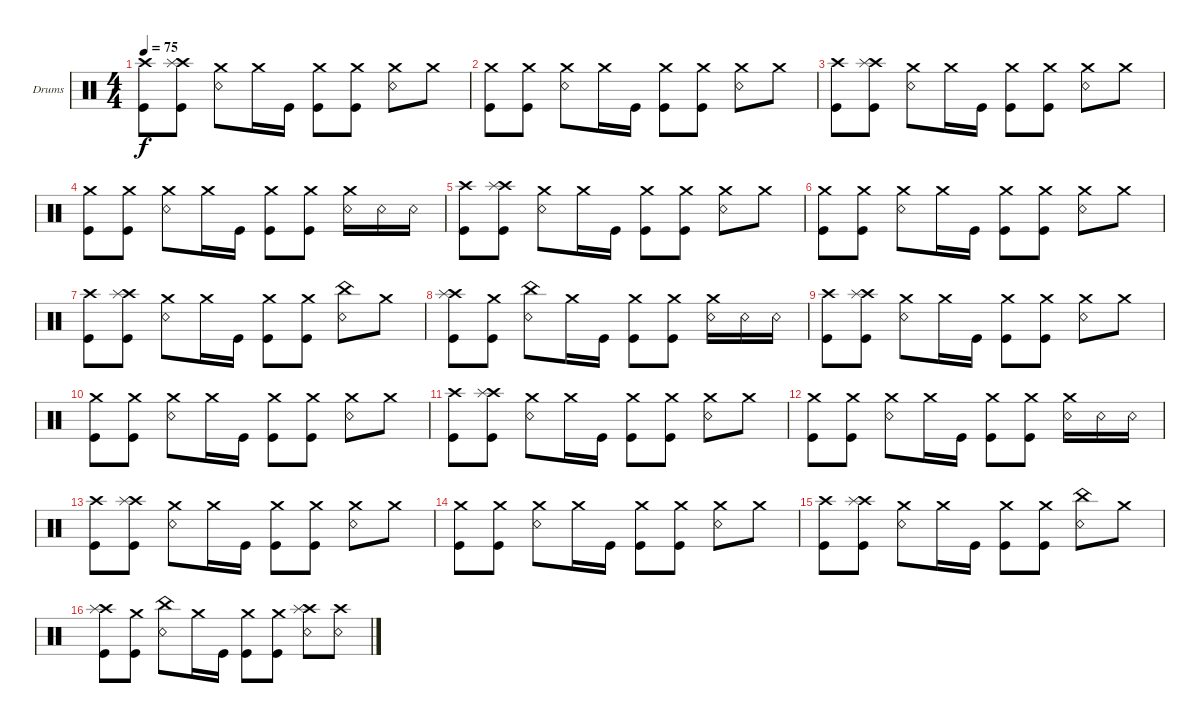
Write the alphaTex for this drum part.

\defaultSystemsLayout 4
\bracketExtendMode groupsimilarinstruments
\firstSystemTrackNameOrientation horizontal
\otherSystemsTrackNameOrientation horizontal
\track ("Drumkit" "Drums") {instrument percussion}
\staff {score}
\articulation defaults
\ts (4 4)
\tempo 75
\clef neutral
\ks c
("Kick (hit)" "Crash high (hit)").8{dy f} ("Kick (hit)" "Crash high (hit)" "Splash (hit)").8 ("Crash medium (hit)" "Snare (rim shot)").8 "Crash medium (hit)".16 "Kick (hit)".16 ("Crash medium (hit)" "Kick (hit)").8 ("Crash medium (hit)" "Kick (hit)").8 ("Snare (rim shot)" "Crash medium (hit)").8 "Crash medium (hit)".8 |
("Kick (hit)" "Crash medium (hit)").8 ("Kick (hit)" "Crash medium (hit)").8 ("Crash medium (hit)" "Snare (rim shot)").8 "Crash medium (hit)".16 "Kick (hit)".16 ("Crash medium (hit)" "Kick (hit)").8 ("Crash medium (hit)" "Kick (hit)").8 ("Snare (rim shot)" "Crash medium (hit)").8 "Crash medium (hit)".8 |
("Kick (hit)" "Crash high (hit)").8 ("Kick (hit)" "Crash high (hit)" "Splash (hit)").8 ("Crash medium (hit)" "Snare (rim shot)").8 "Crash medium (hit)".16 "Kick (hit)".16 ("Crash medium (hit)" "Kick (hit)").8 ("Crash medium (hit)" "Kick (hit)").8 ("Snare (rim shot)" "Crash medium (hit)").8 "Crash medium (hit)".8 |
("Kick (hit)" "Crash medium (hit)").8 ("Kick (hit)" "Crash medium (hit)").8 ("Crash medium (hit)" "Snare (rim shot)").8 "Crash medium (hit)".16 "Kick (hit)".16 ("Crash medium (hit)" "Kick (hit)").8 ("Crash medium (hit)" "Kick (hit)").8 ("Snare (rim shot)" "Crash medium (hit)").16 "Snare (rim shot)".16 "Snare (rim shot)".16 |
("Kick (hit)" "Crash high (hit)").8 ("Kick (hit)" "Crash high (hit)" "Splash (hit)").8 ("Crash medium (hit)" "Snare (rim shot)").8 "Crash medium (hit)".16 "Kick (hit)".16 ("Crash medium (hit)" "Kick (hit)").8 ("Crash medium (hit)" "Kick (hit)").8 ("Snare (rim shot)" "Crash medium (hit)").8 "Crash medium (hit)".8 |
("Kick (hit)" "Crash medium (hit)").8 ("Kick (hit)" "Crash medium (hit)").8 ("Crash medium (hit)" "Snare (rim shot)").8 "Crash medium (hit)".16 "Kick (hit)".16 ("Crash medium (hit)" "Kick (hit)").8 ("Crash medium (hit)" "Kick (hit)").8 ("Snare (rim shot)" "Crash medium (hit)").8 "Crash medium (hit)".8 |
("Kick (hit)" "Crash high (hit)").8 ("Kick (hit)" "Crash high (hit)" "Splash (hit)").8 ("Crash medium (hit)" "Snare (rim shot)").8 "Crash medium (hit)".16 "Kick (hit)".16 ("Crash medium (hit)" "Kick (hit)").8 ("Crash medium (hit)" "Kick (hit)").8 ("Snare (rim shot)" "China (hit)").8 "Crash medium (hit)".8 |
("Kick (hit)" "Crash high (hit)" "Splash (hit)").8 ("Kick (hit)" "Crash medium (hit)").8 ("Snare (rim shot)" "China (hit)").8 "Crash medium (hit)".16 "Kick (hit)".16 ("Crash medium (hit)" "Kick (hit)").8 ("Crash medium (hit)" "Kick (hit)").8 ("Snare (rim shot)" "Crash medium (hit)").16 "Snare (rim shot)".16 "Snare (rim shot)".16 |
("Kick (hit)" "Crash high (hit)").8 ("Kick (hit)" "Crash high (hit)" "Splash (hit)").8 ("Crash medium (hit)" "Snare (rim shot)").8 "Crash medium (hit)".16 "Kick (hit)".16 ("Crash medium (hit)" "Kick (hit)").8 ("Crash medium (hit)" "Kick (hit)").8 ("Snare (rim shot)" "Crash medium (hit)").8 "Crash medium (hit)".8 |
("Kick (hit)" "Crash medium (hit)").8 ("Kick (hit)" "Crash medium (hit)").8 ("Crash medium (hit)" "Snare (rim shot)").8 "Crash medium (hit)".16 "Kick (hit)".16 ("Crash medium (hit)" "Kick (hit)").8 ("Crash medium (hit)" "Kick (hit)").8 ("Snare (rim shot)" "Crash medium (hit)").8 "Crash medium (hit)".8 |
("Kick (hit)" "Crash high (hit)").8 ("Kick (hit)" "Crash high (hit)" "Splash (hit)").8 ("Crash medium (hit)" "Snare (rim shot)").8 "Crash medium (hit)".16 "Kick (hit)".16 ("Crash medium (hit)" "Kick (hit)").8 ("Crash medium (hit)" "Kick (hit)").8 ("Snare (rim shot)" "Crash medium (hit)").8 "Crash medium (hit)".8 |
("Kick (hit)" "Crash medium (hit)").8 ("Kick (hit)" "Crash medium (hit)").8 ("Crash medium (hit)" "Snare (rim shot)").8 "Crash medium (hit)".16 "Kick (hit)".16 ("Crash medium (hit)" "Kick (hit)").8 ("Crash medium (hit)" "Kick (hit)").8 ("Snare (rim shot)" "Crash medium (hit)").16 "Snare (rim shot)".16 "Snare (rim shot)".16 |
("Kick (hit)" "Crash high (hit)").8 ("Kick (hit)" "Crash high (hit)" "Splash (hit)").8 ("Crash medium (hit)" "Snare (rim shot)").8 "Crash medium (hit)".16 "Kick (hit)".16 ("Crash medium (hit)" "Kick (hit)").8 ("Crash medium (hit)" "Kick (hit)").8 ("Snare (rim shot)" "Crash medium (hit)").8 "Crash medium (hit)".8 |
("Kick (hit)" "Crash medium (hit)").8 ("Kick (hit)" "Crash medium (hit)").8 ("Crash medium (hit)" "Snare (rim shot)").8 "Crash medium (hit)".16 "Kick (hit)".16 ("Crash medium (hit)" "Kick (hit)").8 ("Crash medium (hit)" "Kick (hit)").8 ("Snare (rim shot)" "Crash medium (hit)").8 "Crash medium (hit)".8 |
("Kick (hit)" "Crash high (hit)").8 ("Kick (hit)" "Crash high (hit)" "Splash (hit)").8 ("Crash medium (hit)" "Snare (rim shot)").8 "Crash medium (hit)".16 "Kick (hit)".16 ("Crash medium (hit)" "Kick (hit)").8 ("Crash medium (hit)" "Kick (hit)").8 ("Snare (rim shot)" "China (hit)").8 "Crash medium (hit)".8 |
("Kick (hit)" "Crash high (hit)" "Splash (hit)").8 ("Kick (hit)" "Crash medium (hit)").8 ("Snare (rim shot)" "China (hit)").8 "Crash medium (hit)".16 "Kick (hit)".16 ("Crash medium (hit)" "Kick (hit)").8 ("Crash medium (hit)" "Kick (hit)").8 ("Snare (rim shot)" "Crash high (hit)" "Splash (hit)").8 ("Snare (rim shot)" "Crash high (hit)").8
